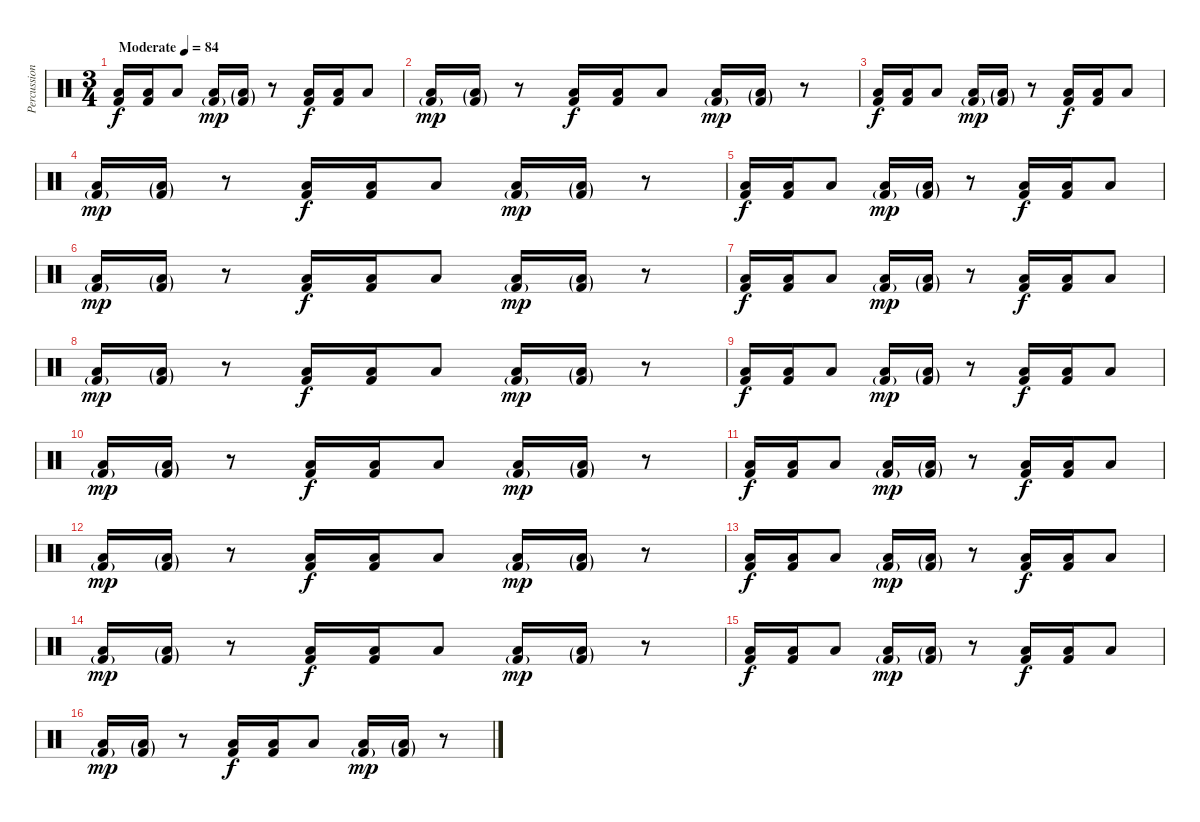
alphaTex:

\track ("Percussion" "Percussion") {instrument percussion}
\staff {score}
\articulation defaults
\ts (3 4)
\tempo (84 "Moderate")
\clef neutral
\ks c
("Low Tom (hit)" "Kick (hit) 2").16{dy f} ("Low Tom (hit)" "Kick (hit) 2").16 "Low Tom (hit)".8 ("Low Tom (hit)" "Kick (hit) 2"{g}).16{dy mp} ("Low Tom (hit)"{g} "Kick (hit) 2"{g}).16 r.8 ("Low Tom (hit)" "Kick (hit) 2").16{dy f} ("Low Tom (hit)" "Kick (hit) 2").16 "Low Tom (hit)".8 |
("Low Tom (hit)" "Kick (hit) 2"{g}).16{dy mp} ("Low Tom (hit)"{g} "Kick (hit) 2"{g}).16 r.8 ("Low Tom (hit)" "Kick (hit) 2").16{dy f} ("Low Tom (hit)" "Kick (hit) 2").16 "Low Tom (hit)".8 ("Low Tom (hit)" "Kick (hit) 2"{g}).16{dy mp} ("Low Tom (hit)"{g} "Kick (hit) 2"{g}).16 r.8 |
("Low Tom (hit)" "Kick (hit) 2").16{dy f} ("Low Tom (hit)" "Kick (hit) 2").16 "Low Tom (hit)".8 ("Low Tom (hit)" "Kick (hit) 2"{g}).16{dy mp} ("Low Tom (hit)"{g} "Kick (hit) 2"{g}).16 r.8 ("Low Tom (hit)" "Kick (hit) 2").16{dy f} ("Low Tom (hit)" "Kick (hit) 2").16 "Low Tom (hit)".8 |
("Low Tom (hit)" "Kick (hit) 2"{g}).16{dy mp} ("Low Tom (hit)"{g} "Kick (hit) 2"{g}).16 r.8 ("Low Tom (hit)" "Kick (hit) 2").16{dy f} ("Low Tom (hit)" "Kick (hit) 2").16 "Low Tom (hit)".8 ("Low Tom (hit)" "Kick (hit) 2"{g}).16{dy mp} ("Low Tom (hit)"{g} "Kick (hit) 2"{g}).16 r.8 |
("Low Tom (hit)" "Kick (hit) 2").16{dy f} ("Low Tom (hit)" "Kick (hit) 2").16 "Low Tom (hit)".8 ("Low Tom (hit)" "Kick (hit) 2"{g}).16{dy mp} ("Low Tom (hit)"{g} "Kick (hit) 2"{g}).16 r.8 ("Low Tom (hit)" "Kick (hit) 2").16{dy f} ("Low Tom (hit)" "Kick (hit) 2").16 "Low Tom (hit)".8 |
("Low Tom (hit)" "Kick (hit) 2"{g}).16{dy mp} ("Low Tom (hit)"{g} "Kick (hit) 2"{g}).16 r.8 ("Low Tom (hit)" "Kick (hit) 2").16{dy f} ("Low Tom (hit)" "Kick (hit) 2").16 "Low Tom (hit)".8 ("Low Tom (hit)" "Kick (hit) 2"{g}).16{dy mp} ("Low Tom (hit)"{g} "Kick (hit) 2"{g}).16 r.8 |
("Low Tom (hit)" "Kick (hit) 2").16{dy f} ("Low Tom (hit)" "Kick (hit) 2").16 "Low Tom (hit)".8 ("Low Tom (hit)" "Kick (hit) 2"{g}).16{dy mp} ("Low Tom (hit)"{g} "Kick (hit) 2"{g}).16 r.8 ("Low Tom (hit)" "Kick (hit) 2").16{dy f} ("Low Tom (hit)" "Kick (hit) 2").16 "Low Tom (hit)".8 |
("Low Tom (hit)" "Kick (hit) 2"{g}).16{dy mp} ("Low Tom (hit)"{g} "Kick (hit) 2"{g}).16 r.8 ("Low Tom (hit)" "Kick (hit) 2").16{dy f} ("Low Tom (hit)" "Kick (hit) 2").16 "Low Tom (hit)".8 ("Low Tom (hit)" "Kick (hit) 2"{g}).16{dy mp} ("Low Tom (hit)"{g} "Kick (hit) 2"{g}).16 r.8 |
("Low Tom (hit)" "Kick (hit) 2").16{dy f} ("Low Tom (hit)" "Kick (hit) 2").16 "Low Tom (hit)".8 ("Low Tom (hit)" "Kick (hit) 2"{g}).16{dy mp} ("Low Tom (hit)"{g} "Kick (hit) 2"{g}).16 r.8 ("Low Tom (hit)" "Kick (hit) 2").16{dy f} ("Low Tom (hit)" "Kick (hit) 2").16 "Low Tom (hit)".8 |
("Low Tom (hit)" "Kick (hit) 2"{g}).16{dy mp} ("Low Tom (hit)"{g} "Kick (hit) 2"{g}).16 r.8 ("Low Tom (hit)" "Kick (hit) 2").16{dy f} ("Low Tom (hit)" "Kick (hit) 2").16 "Low Tom (hit)".8 ("Low Tom (hit)" "Kick (hit) 2"{g}).16{dy mp} ("Low Tom (hit)"{g} "Kick (hit) 2"{g}).16 r.8 |
("Low Tom (hit)" "Kick (hit) 2").16{dy f} ("Low Tom (hit)" "Kick (hit) 2").16 "Low Tom (hit)".8 ("Low Tom (hit)" "Kick (hit) 2"{g}).16{dy mp} ("Low Tom (hit)"{g} "Kick (hit) 2"{g}).16 r.8 ("Low Tom (hit)" "Kick (hit) 2").16{dy f} ("Low Tom (hit)" "Kick (hit) 2").16 "Low Tom (hit)".8 |
("Low Tom (hit)" "Kick (hit) 2"{g}).16{dy mp} ("Low Tom (hit)"{g} "Kick (hit) 2"{g}).16 r.8 ("Low Tom (hit)" "Kick (hit) 2").16{dy f} ("Low Tom (hit)" "Kick (hit) 2").16 "Low Tom (hit)".8 ("Low Tom (hit)" "Kick (hit) 2"{g}).16{dy mp} ("Low Tom (hit)"{g} "Kick (hit) 2"{g}).16 r.8 |
("Low Tom (hit)" "Kick (hit) 2").16{dy f} ("Low Tom (hit)" "Kick (hit) 2").16 "Low Tom (hit)".8 ("Low Tom (hit)" "Kick (hit) 2"{g}).16{dy mp} ("Low Tom (hit)"{g} "Kick (hit) 2"{g}).16 r.8 ("Low Tom (hit)" "Kick (hit) 2").16{dy f} ("Low Tom (hit)" "Kick (hit) 2").16 "Low Tom (hit)".8 |
("Low Tom (hit)" "Kick (hit) 2"{g}).16{dy mp} ("Low Tom (hit)"{g} "Kick (hit) 2"{g}).16 r.8 ("Low Tom (hit)" "Kick (hit) 2").16{dy f} ("Low Tom (hit)" "Kick (hit) 2").16 "Low Tom (hit)".8 ("Low Tom (hit)" "Kick (hit) 2"{g}).16{dy mp} ("Low Tom (hit)"{g} "Kick (hit) 2"{g}).16 r.8 |
("Low Tom (hit)" "Kick (hit) 2").16{dy f} ("Low Tom (hit)" "Kick (hit) 2").16 "Low Tom (hit)".8 ("Low Tom (hit)" "Kick (hit) 2"{g}).16{dy mp} ("Low Tom (hit)"{g} "Kick (hit) 2"{g}).16 r.8 ("Low Tom (hit)" "Kick (hit) 2").16{dy f} ("Low Tom (hit)" "Kick (hit) 2").16 "Low Tom (hit)".8 |
("Low Tom (hit)" "Kick (hit) 2"{g}).16{dy mp} ("Low Tom (hit)"{g} "Kick (hit) 2"{g}).16 r.8 ("Low Tom (hit)" "Kick (hit) 2").16{dy f} ("Low Tom (hit)" "Kick (hit) 2").16 "Low Tom (hit)".8 ("Low Tom (hit)" "Kick (hit) 2"{g}).16{dy mp} ("Low Tom (hit)"{g} "Kick (hit) 2"{g}).16 r.8
